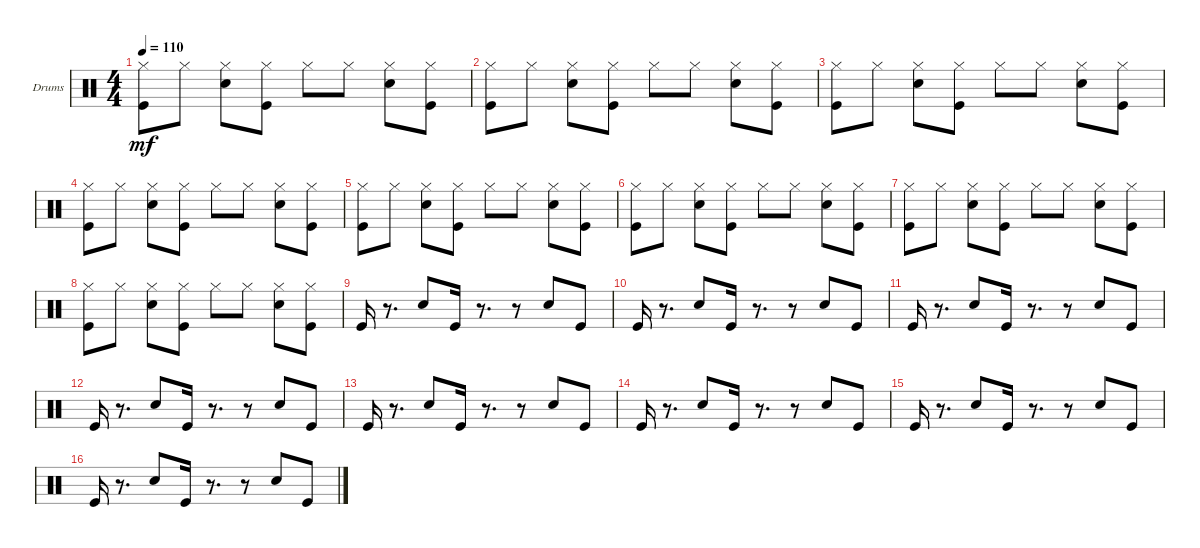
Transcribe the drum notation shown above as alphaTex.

\defaultSystemsLayout 4
\bracketExtendMode groupsimilarinstruments
\firstSystemTrackNameOrientation horizontal
\otherSystemsTrackNameOrientation horizontal
\track ("Drumkit" "Drums") {instrument percussion}
\staff {score}
\articulation defaults
\ts (4 4)
\tempo 110
\clef neutral
\ks c
("Kick (hit)" "Hi-Hat (closed)").8{dy mf} "Hi-Hat (closed)".8 ("Snare (hit) 2" "Hi-Hat (closed)").8 ("Kick (hit)" "Hi-Hat (closed)").8 "Hi-Hat (closed)".8 "Hi-Hat (closed)".8 ("Snare (hit) 2" "Hi-Hat (closed)").8 ("Hi-Hat (closed)" "Kick (hit)").8 |
("Kick (hit)" "Hi-Hat (closed)").8 "Hi-Hat (closed)".8 ("Snare (hit) 2" "Hi-Hat (closed)").8 ("Kick (hit)" "Hi-Hat (closed)").8 "Hi-Hat (closed)".8 "Hi-Hat (closed)".8 ("Snare (hit) 2" "Hi-Hat (closed)").8 ("Hi-Hat (closed)" "Kick (hit)").8 |
("Kick (hit)" "Hi-Hat (closed)").8 "Hi-Hat (closed)".8 ("Snare (hit) 2" "Hi-Hat (closed)").8 ("Kick (hit)" "Hi-Hat (closed)").8 "Hi-Hat (closed)".8 "Hi-Hat (closed)".8 ("Snare (hit) 2" "Hi-Hat (closed)").8 ("Hi-Hat (closed)" "Kick (hit)").8 |
("Kick (hit)" "Hi-Hat (closed)").8 "Hi-Hat (closed)".8 ("Snare (hit) 2" "Hi-Hat (closed)").8 ("Kick (hit)" "Hi-Hat (closed)").8 "Hi-Hat (closed)".8 "Hi-Hat (closed)".8 ("Snare (hit) 2" "Hi-Hat (closed)").8 ("Hi-Hat (closed)" "Kick (hit)").8 |
("Kick (hit)" "Hi-Hat (closed)").8 "Hi-Hat (closed)".8 ("Snare (hit) 2" "Hi-Hat (closed)").8 ("Kick (hit)" "Hi-Hat (closed)").8 "Hi-Hat (closed)".8 "Hi-Hat (closed)".8 ("Snare (hit) 2" "Hi-Hat (closed)").8 ("Hi-Hat (closed)" "Kick (hit)").8 |
("Kick (hit)" "Hi-Hat (closed)").8 "Hi-Hat (closed)".8 ("Snare (hit) 2" "Hi-Hat (closed)").8 ("Kick (hit)" "Hi-Hat (closed)").8 "Hi-Hat (closed)".8 "Hi-Hat (closed)".8 ("Snare (hit) 2" "Hi-Hat (closed)").8 ("Hi-Hat (closed)" "Kick (hit)").8 |
("Kick (hit)" "Hi-Hat (closed)").8 "Hi-Hat (closed)".8 ("Snare (hit) 2" "Hi-Hat (closed)").8 ("Kick (hit)" "Hi-Hat (closed)").8 "Hi-Hat (closed)".8 "Hi-Hat (closed)".8 ("Snare (hit) 2" "Hi-Hat (closed)").8 ("Hi-Hat (closed)" "Kick (hit)").8 |
("Kick (hit)" "Hi-Hat (closed)").8 "Hi-Hat (closed)".8 ("Snare (hit) 2" "Hi-Hat (closed)").8 ("Kick (hit)" "Hi-Hat (closed)").8 "Hi-Hat (closed)".8 "Hi-Hat (closed)".8 ("Snare (hit) 2" "Hi-Hat (closed)").8 ("Hi-Hat (closed)" "Kick (hit)").8 |
"Kick (hit)".16 r.8{d} "Snare (hit) 2".8 "Kick (hit)".16 r.8{d} r.8 "Snare (hit) 2".8 "Kick (hit)".8 |
"Kick (hit)".16 r.8{d} "Snare (hit) 2".8 "Kick (hit)".16 r.8{d} r.8 "Snare (hit) 2".8 "Kick (hit)".8 |
"Kick (hit)".16 r.8{d} "Snare (hit) 2".8 "Kick (hit)".16 r.8{d} r.8 "Snare (hit) 2".8 "Kick (hit)".8 |
"Kick (hit)".16 r.8{d} "Snare (hit) 2".8 "Kick (hit)".16 r.8{d} r.8 "Snare (hit) 2".8 "Kick (hit)".8 |
"Kick (hit)".16 r.8{d} "Snare (hit) 2".8 "Kick (hit)".16 r.8{d} r.8 "Snare (hit) 2".8 "Kick (hit)".8 |
"Kick (hit)".16 r.8{d} "Snare (hit) 2".8 "Kick (hit)".16 r.8{d} r.8 "Snare (hit) 2".8 "Kick (hit)".8 |
"Kick (hit)".16 r.8{d} "Snare (hit) 2".8 "Kick (hit)".16 r.8{d} r.8 "Snare (hit) 2".8 "Kick (hit)".8 |
"Kick (hit)".16 r.8{d} "Snare (hit) 2".8 "Kick (hit)".16 r.8{d} r.8 "Snare (hit) 2".8 "Kick (hit)".8
